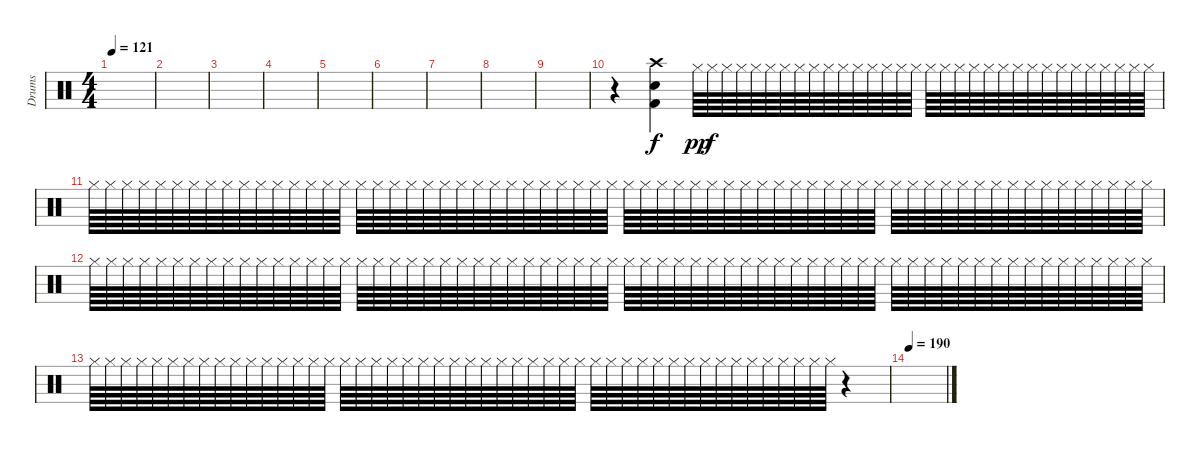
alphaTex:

\track ("Drums" "Drums") {instrument percussion}
\staff {score}
\articulation defaults
\ts (4 4)
\tempo 121
\tempo 135
\tempo 121
\clef neutral
\ks c
|
|
|
|
|
|
|
|
|
r.4 ("Crash high (hit)" "Snare (hit) 2" "Kick (hit) 2").4 "Hi-Hat (closed)".64{dy pp} "Hi-Hat (closed)".64{dy f} "Hi-Hat (closed)".64 "Hi-Hat (closed)".64 "Hi-Hat (closed)".64 "Hi-Hat (closed)".64 "Hi-Hat (closed)".64 "Hi-Hat (closed)".64 "Hi-Hat (closed)".64 "Hi-Hat (closed)".64 "Hi-Hat (closed)".64 "Hi-Hat (closed)".64 "Hi-Hat (closed)".64 "Hi-Hat (closed)".64 "Hi-Hat (closed)".64 "Hi-Hat (closed)".64 "Hi-Hat (closed)".64 "Hi-Hat (closed)".64 "Hi-Hat (closed)".64 "Hi-Hat (closed)".64 "Hi-Hat (closed)".64 "Hi-Hat (closed)".64 "Hi-Hat (closed)".64 "Hi-Hat (closed)".64 "Hi-Hat (closed)".64 "Hi-Hat (closed)".64 "Hi-Hat (closed)".64 "Hi-Hat (closed)".64 "Hi-Hat (closed)".64 "Hi-Hat (closed)".64 "Hi-Hat (closed)".64 "Hi-Hat (closed)".64 |
"Hi-Hat (closed)".64 "Hi-Hat (closed)".64 "Hi-Hat (closed)".64 "Hi-Hat (closed)".64 "Hi-Hat (closed)".64 "Hi-Hat (closed)".64 "Hi-Hat (closed)".64 "Hi-Hat (closed)".64 "Hi-Hat (closed)".64 "Hi-Hat (closed)".64 "Hi-Hat (closed)".64 "Hi-Hat (closed)".64 "Hi-Hat (closed)".64 "Hi-Hat (closed)".64 "Hi-Hat (closed)".64 "Hi-Hat (closed)".64 "Hi-Hat (closed)".64 "Hi-Hat (closed)".64 "Hi-Hat (closed)".64 "Hi-Hat (closed)".64 "Hi-Hat (closed)".64 "Hi-Hat (closed)".64 "Hi-Hat (closed)".64 "Hi-Hat (closed)".64 "Hi-Hat (closed)".64 "Hi-Hat (closed)".64 "Hi-Hat (closed)".64 "Hi-Hat (closed)".64 "Hi-Hat (closed)".64 "Hi-Hat (closed)".64 "Hi-Hat (closed)".64 "Hi-Hat (closed)".64 "Hi-Hat (closed)".64 "Hi-Hat (closed)".64 "Hi-Hat (closed)".64 "Hi-Hat (closed)".64 "Hi-Hat (closed)".64 "Hi-Hat (closed)".64 "Hi-Hat (closed)".64 "Hi-Hat (closed)".64 "Hi-Hat (closed)".64 "Hi-Hat (closed)".64 "Hi-Hat (closed)".64 "Hi-Hat (closed)".64 "Hi-Hat (closed)".64 "Hi-Hat (closed)".64 "Hi-Hat (closed)".64 "Hi-Hat (closed)".64 "Hi-Hat (closed)".64 "Hi-Hat (closed)".64 "Hi-Hat (closed)".64 "Hi-Hat (closed)".64 "Hi-Hat (closed)".64 "Hi-Hat (closed)".64 "Hi-Hat (closed)".64 "Hi-Hat (closed)".64 "Hi-Hat (closed)".64 "Hi-Hat (closed)".64 "Hi-Hat (closed)".64 "Hi-Hat (closed)".64 "Hi-Hat (closed)".64 "Hi-Hat (closed)".64 "Hi-Hat (closed)".64 "Hi-Hat (closed)".64 |
"Hi-Hat (closed)".64 "Hi-Hat (closed)".64 "Hi-Hat (closed)".64 "Hi-Hat (closed)".64 "Hi-Hat (closed)".64 "Hi-Hat (closed)".64 "Hi-Hat (closed)".64 "Hi-Hat (closed)".64 "Hi-Hat (closed)".64 "Hi-Hat (closed)".64 "Hi-Hat (closed)".64 "Hi-Hat (closed)".64 "Hi-Hat (closed)".64 "Hi-Hat (closed)".64 "Hi-Hat (closed)".64 "Hi-Hat (closed)".64 "Hi-Hat (closed)".64 "Hi-Hat (closed)".64 "Hi-Hat (closed)".64 "Hi-Hat (closed)".64 "Hi-Hat (closed)".64 "Hi-Hat (closed)".64 "Hi-Hat (closed)".64 "Hi-Hat (closed)".64 "Hi-Hat (closed)".64 "Hi-Hat (closed)".64 "Hi-Hat (closed)".64 "Hi-Hat (closed)".64 "Hi-Hat (closed)".64 "Hi-Hat (closed)".64 "Hi-Hat (closed)".64 "Hi-Hat (closed)".64 "Hi-Hat (closed)".64 "Hi-Hat (closed)".64 "Hi-Hat (closed)".64 "Hi-Hat (closed)".64 "Hi-Hat (closed)".64 "Hi-Hat (closed)".64 "Hi-Hat (closed)".64 "Hi-Hat (closed)".64 "Hi-Hat (closed)".64 "Hi-Hat (closed)".64 "Hi-Hat (closed)".64 "Hi-Hat (closed)".64 "Hi-Hat (closed)".64 "Hi-Hat (closed)".64 "Hi-Hat (closed)".64 "Hi-Hat (closed)".64 "Hi-Hat (closed)".64 "Hi-Hat (closed)".64 "Hi-Hat (closed)".64 "Hi-Hat (closed)".64 "Hi-Hat (closed)".64 "Hi-Hat (closed)".64 "Hi-Hat (closed)".64 "Hi-Hat (closed)".64 "Hi-Hat (closed)".64 "Hi-Hat (closed)".64 "Hi-Hat (closed)".64 "Hi-Hat (closed)".64 "Hi-Hat (closed)".64 "Hi-Hat (closed)".64 "Hi-Hat (closed)".64 "Hi-Hat (closed)".64 |
"Hi-Hat (closed)".64 "Hi-Hat (closed)".64 "Hi-Hat (closed)".64 "Hi-Hat (closed)".64 "Hi-Hat (closed)".64 "Hi-Hat (closed)".64 "Hi-Hat (closed)".64 "Hi-Hat (closed)".64 "Hi-Hat (closed)".64 "Hi-Hat (closed)".64 "Hi-Hat (closed)".64 "Hi-Hat (closed)".64 "Hi-Hat (closed)".64 "Hi-Hat (closed)".64 "Hi-Hat (closed)".64 "Hi-Hat (closed)".64 "Hi-Hat (closed)".64 "Hi-Hat (closed)".64 "Hi-Hat (closed)".64 "Hi-Hat (closed)".64 "Hi-Hat (closed)".64 "Hi-Hat (closed)".64 "Hi-Hat (closed)".64 "Hi-Hat (closed)".64 "Hi-Hat (closed)".64 "Hi-Hat (closed)".64 "Hi-Hat (closed)".64 "Hi-Hat (closed)".64 "Hi-Hat (closed)".64 "Hi-Hat (closed)".64 "Hi-Hat (closed)".64 "Hi-Hat (closed)".64 "Hi-Hat (closed)".64 "Hi-Hat (closed)".64 "Hi-Hat (closed)".64 "Hi-Hat (closed)".64 "Hi-Hat (closed)".64 "Hi-Hat (closed)".64 "Hi-Hat (closed)".64 "Hi-Hat (closed)".64 "Hi-Hat (closed)".64 "Hi-Hat (closed)".64 "Hi-Hat (closed)".64 "Hi-Hat (closed)".64 "Hi-Hat (closed)".64 "Hi-Hat (closed)".64 "Hi-Hat (closed)".64 "Hi-Hat (closed)".64 r.4 |
\tempo 190
